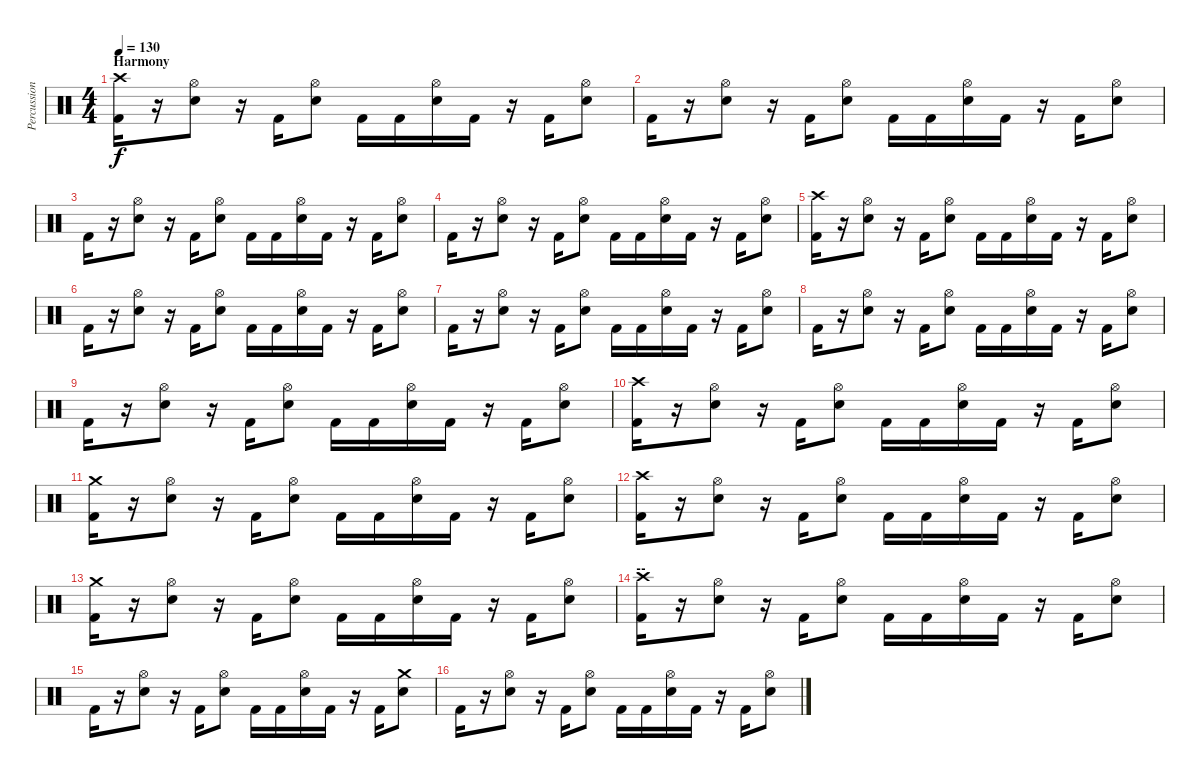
\track ("Percussion" "Percussion") {instrument percussion}
\staff {score}
\articulation defaults
\ts (4 4)
\section ("" "Harmony")
\tempo 130
\clef neutral
\ks c
("Kick (hit) 2" "Crash high (hit)").16{dy f} r.16 ("Electric Snare (hit)" "Hi-Hat (open)").8 r.16 "Kick (hit) 2".16 ("Electric Snare (hit)" "Hi-Hat (open)").8 "Kick (hit) 2".16 "Kick (hit) 2".16 ("Electric Snare (hit)" "Hi-Hat (open)").16 "Kick (hit) 2".16 r.16 "Kick (hit) 2".16 ("Electric Snare (hit)" "Hi-Hat (open)").8 |
"Kick (hit) 2".16 r.16 ("Electric Snare (hit)" "Hi-Hat (open)").8 r.16 "Kick (hit) 2".16 ("Electric Snare (hit)" "Hi-Hat (open)").8 "Kick (hit) 2".16 "Kick (hit) 2".16 ("Electric Snare (hit)" "Hi-Hat (open)").16 "Kick (hit) 2".16 r.16 "Kick (hit) 2".16 ("Electric Snare (hit)" "Hi-Hat (open)").8 |
"Kick (hit) 2".16 r.16 ("Electric Snare (hit)" "Hi-Hat (open)").8 r.16 "Kick (hit) 2".16 ("Electric Snare (hit)" "Hi-Hat (open)").8 "Kick (hit) 2".16 "Kick (hit) 2".16 ("Electric Snare (hit)" "Hi-Hat (open)").16 "Kick (hit) 2".16 r.16 "Kick (hit) 2".16 ("Electric Snare (hit)" "Hi-Hat (open)").8 |
"Kick (hit) 2".16 r.16 ("Electric Snare (hit)" "Hi-Hat (open)").8 r.16 "Kick (hit) 2".16 ("Electric Snare (hit)" "Hi-Hat (open)").8 "Kick (hit) 2".16 "Kick (hit) 2".16 ("Electric Snare (hit)" "Hi-Hat (open)").16 "Kick (hit) 2".16 r.16 "Kick (hit) 2".16 ("Electric Snare (hit)" "Hi-Hat (open)").8 |
("Kick (hit) 2" "Crash high (hit)").16 r.16 ("Electric Snare (hit)" "Hi-Hat (open)").8 r.16 "Kick (hit) 2".16 ("Electric Snare (hit)" "Hi-Hat (open)").8 "Kick (hit) 2".16 "Kick (hit) 2".16 ("Electric Snare (hit)" "Hi-Hat (open)").16 "Kick (hit) 2".16 r.16 "Kick (hit) 2".16 ("Electric Snare (hit)" "Hi-Hat (open)").8 |
"Kick (hit) 2".16 r.16 ("Electric Snare (hit)" "Hi-Hat (open)").8 r.16 "Kick (hit) 2".16 ("Electric Snare (hit)" "Hi-Hat (open)").8 "Kick (hit) 2".16 "Kick (hit) 2".16 ("Electric Snare (hit)" "Hi-Hat (open)").16 "Kick (hit) 2".16 r.16 "Kick (hit) 2".16 ("Electric Snare (hit)" "Hi-Hat (open)").8 |
"Kick (hit) 2".16 r.16 ("Electric Snare (hit)" "Hi-Hat (open)").8 r.16 "Kick (hit) 2".16 ("Electric Snare (hit)" "Hi-Hat (open)").8 "Kick (hit) 2".16 "Kick (hit) 2".16 ("Electric Snare (hit)" "Hi-Hat (open)").16 "Kick (hit) 2".16 r.16 "Kick (hit) 2".16 ("Electric Snare (hit)" "Hi-Hat (open)").8 |
"Kick (hit) 2".16 r.16 ("Electric Snare (hit)" "Hi-Hat (open)").8 r.16 "Kick (hit) 2".16 ("Electric Snare (hit)" "Hi-Hat (open)").8 "Kick (hit) 2".16 "Kick (hit) 2".16 ("Electric Snare (hit)" "Hi-Hat (open)").16 "Kick (hit) 2".16 r.16 "Kick (hit) 2".16 ("Electric Snare (hit)" "Hi-Hat (open)").8 |
"Kick (hit) 2".16 r.16 ("Electric Snare (hit)" "Hi-Hat (open)").8 r.16 "Kick (hit) 2".16 ("Electric Snare (hit)" "Hi-Hat (open)").8 "Kick (hit) 2".16 "Kick (hit) 2".16 ("Electric Snare (hit)" "Hi-Hat (open)").16 "Kick (hit) 2".16 r.16 "Kick (hit) 2".16 ("Electric Snare (hit)" "Hi-Hat (open)").8 |
("Kick (hit) 2" "Crash high (hit)").16 r.16 ("Electric Snare (hit)" "Hi-Hat (open)").8 r.16 "Kick (hit) 2".16 ("Electric Snare (hit)" "Hi-Hat (open)").8 "Kick (hit) 2".16 "Kick (hit) 2".16 ("Electric Snare (hit)" "Hi-Hat (open)").16 "Kick (hit) 2".16 r.16 "Kick (hit) 2".16 ("Electric Snare (hit)" "Hi-Hat (open)").8 |
("Kick (hit) 2" "Crash medium (hit)").16 r.16 ("Electric Snare (hit)" "Hi-Hat (open)").8 r.16 "Kick (hit) 2".16 ("Electric Snare (hit)" "Hi-Hat (open)").8 "Kick (hit) 2".16 "Kick (hit) 2".16 ("Electric Snare (hit)" "Hi-Hat (open)").16 "Kick (hit) 2".16 r.16 "Kick (hit) 2".16 ("Electric Snare (hit)" "Hi-Hat (open)").8 |
("Kick (hit) 2" "Crash high (hit)").16 r.16 ("Electric Snare (hit)" "Hi-Hat (open)").8 r.16 "Kick (hit) 2".16 ("Electric Snare (hit)" "Hi-Hat (open)").8 "Kick (hit) 2".16 "Kick (hit) 2".16 ("Electric Snare (hit)" "Hi-Hat (open)").16 "Kick (hit) 2".16 r.16 "Kick (hit) 2".16 ("Electric Snare (hit)" "Hi-Hat (open)").8 |
("Kick (hit) 2" "Crash medium (hit)").16 r.16 ("Electric Snare (hit)" "Hi-Hat (open)").8 r.16 "Kick (hit) 2".16 ("Electric Snare (hit)" "Hi-Hat (open)").8 "Kick (hit) 2".16 "Kick (hit) 2".16 ("Electric Snare (hit)" "Hi-Hat (open)").16 "Kick (hit) 2".16 r.16 "Kick (hit) 2".16 ("Electric Snare (hit)" "Hi-Hat (open)").8 |
\section ("" "--")
("Kick (hit) 2" "Crash high (hit)").16 r.16 ("Electric Snare (hit)" "Hi-Hat (open)").8 r.16 "Kick (hit) 2".16 ("Electric Snare (hit)" "Hi-Hat (open)").8 "Kick (hit) 2".16 "Kick (hit) 2".16 ("Electric Snare (hit)" "Hi-Hat (open)").16 "Kick (hit) 2".16 r.16 "Kick (hit) 2".16 ("Electric Snare (hit)" "Hi-Hat (open)").8 |
"Kick (hit) 2".16 r.16 ("Electric Snare (hit)" "Hi-Hat (open)").8 r.16 "Kick (hit) 2".16 ("Electric Snare (hit)" "Hi-Hat (open)").8 "Kick (hit) 2".16 "Kick (hit) 2".16 ("Electric Snare (hit)" "Hi-Hat (open)").16 "Kick (hit) 2".16 r.16 "Kick (hit) 2".16 ("Electric Snare (hit)" "Crash medium (hit)").8 |
"Kick (hit) 2".16 r.16 ("Electric Snare (hit)" "Hi-Hat (open)").8 r.16 "Kick (hit) 2".16 ("Electric Snare (hit)" "Hi-Hat (open)").8 "Kick (hit) 2".16 "Kick (hit) 2".16 ("Electric Snare (hit)" "Hi-Hat (open)").16 "Kick (hit) 2".16 r.16 "Kick (hit) 2".16 ("Electric Snare (hit)" "Hi-Hat (open)").8
